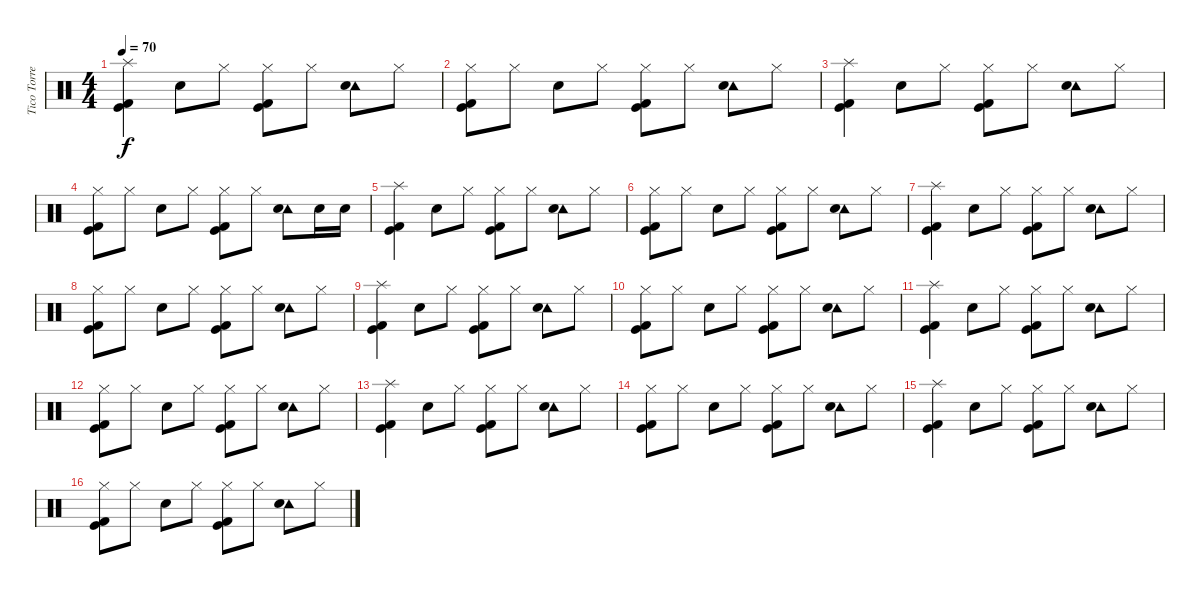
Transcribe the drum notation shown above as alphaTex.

\track ("Tico Torres" "Tico Torre") {instrument percussion}
\staff {score}
\articulation defaults
\ts (4 4)
\tempo 70
\clef neutral
\ks c
("Splash (hit)" "Kick (hit) 2" "Kick (hit)").4{dy f} "Snare (hit) 2".8 "Hi-Hat (closed)".8 ("Hi-Hat (closed)" "Kick (hit) 2" "Kick (hit)").8 "Hi-Hat (closed)".8 ("Tambourine (hit)" "Snare (hit) 2").8 "Hi-Hat (closed)".8 |
("Hi-Hat (closed)" "Kick (hit) 2" "Kick (hit)").8 "Hi-Hat (closed)".8 "Snare (hit) 2".8 "Hi-Hat (closed)".8 ("Hi-Hat (closed)" "Kick (hit) 2" "Kick (hit)").8 "Hi-Hat (closed)".8 ("Tambourine (hit)" "Snare (hit) 2").8 "Hi-Hat (closed)".8 |
("Splash (hit)" "Kick (hit) 2" "Kick (hit)").4 "Snare (hit) 2".8 "Hi-Hat (closed)".8 ("Hi-Hat (closed)" "Kick (hit) 2" "Kick (hit)").8 "Hi-Hat (closed)".8 ("Tambourine (hit)" "Snare (hit) 2").8 "Hi-Hat (closed)".8 |
("Hi-Hat (closed)" "Kick (hit) 2" "Kick (hit)").8 "Hi-Hat (closed)".8 "Snare (hit) 2".8 "Hi-Hat (closed)".8 ("Hi-Hat (closed)" "Kick (hit) 2" "Kick (hit)").8 "Hi-Hat (closed)".8 ("Tambourine (hit)" "Snare (hit) 2").8 "Snare (hit) 2".16 "Snare (hit) 2".16 |
("Splash (hit)" "Kick (hit) 2" "Kick (hit)").4 "Snare (hit) 2".8 "Hi-Hat (closed)".8 ("Hi-Hat (closed)" "Kick (hit) 2" "Kick (hit)").8 "Hi-Hat (closed)".8 ("Tambourine (hit)" "Snare (hit) 2").8 "Hi-Hat (closed)".8 |
("Hi-Hat (closed)" "Kick (hit) 2" "Kick (hit)").8 "Hi-Hat (closed)".8 "Snare (hit) 2".8 "Hi-Hat (closed)".8 ("Hi-Hat (closed)" "Kick (hit) 2" "Kick (hit)").8 "Hi-Hat (closed)".8 ("Tambourine (hit)" "Snare (hit) 2").8 "Hi-Hat (closed)".8 |
("Splash (hit)" "Kick (hit) 2" "Kick (hit)").4 "Snare (hit) 2".8 "Hi-Hat (closed)".8 ("Hi-Hat (closed)" "Kick (hit) 2" "Kick (hit)").8 "Hi-Hat (closed)".8 ("Tambourine (hit)" "Snare (hit) 2").8 "Hi-Hat (closed)".8 |
("Hi-Hat (closed)" "Kick (hit) 2" "Kick (hit)").8 "Hi-Hat (closed)".8 "Snare (hit) 2".8 "Hi-Hat (closed)".8 ("Hi-Hat (closed)" "Kick (hit) 2" "Kick (hit)").8 "Hi-Hat (closed)".8 ("Tambourine (hit)" "Snare (hit) 2").8 "Hi-Hat (closed)".8 |
("Splash (hit)" "Kick (hit) 2" "Kick (hit)").4 "Snare (hit) 2".8 "Hi-Hat (closed)".8 ("Hi-Hat (closed)" "Kick (hit) 2" "Kick (hit)").8 "Hi-Hat (closed)".8 ("Tambourine (hit)" "Snare (hit) 2").8 "Hi-Hat (closed)".8 |
("Hi-Hat (closed)" "Kick (hit) 2" "Kick (hit)").8 "Hi-Hat (closed)".8 "Snare (hit) 2".8 "Hi-Hat (closed)".8 ("Hi-Hat (closed)" "Kick (hit) 2" "Kick (hit)").8 "Hi-Hat (closed)".8 ("Tambourine (hit)" "Snare (hit) 2").8 "Hi-Hat (closed)".8 |
("Splash (hit)" "Kick (hit) 2" "Kick (hit)").4 "Snare (hit) 2".8 "Hi-Hat (closed)".8 ("Hi-Hat (closed)" "Kick (hit) 2" "Kick (hit)").8 "Hi-Hat (closed)".8 ("Tambourine (hit)" "Snare (hit) 2").8 "Hi-Hat (closed)".8 |
("Hi-Hat (closed)" "Kick (hit) 2" "Kick (hit)").8 "Hi-Hat (closed)".8 "Snare (hit) 2".8 "Hi-Hat (closed)".8 ("Hi-Hat (closed)" "Kick (hit) 2" "Kick (hit)").8 "Hi-Hat (closed)".8 ("Tambourine (hit)" "Snare (hit) 2").8 "Hi-Hat (closed)".8 |
("Splash (hit)" "Kick (hit) 2" "Kick (hit)").4 "Snare (hit) 2".8 "Hi-Hat (closed)".8 ("Hi-Hat (closed)" "Kick (hit) 2" "Kick (hit)").8 "Hi-Hat (closed)".8 ("Tambourine (hit)" "Snare (hit) 2").8 "Hi-Hat (closed)".8 |
("Hi-Hat (closed)" "Kick (hit) 2" "Kick (hit)").8 "Hi-Hat (closed)".8 "Snare (hit) 2".8 "Hi-Hat (closed)".8 ("Hi-Hat (closed)" "Kick (hit) 2" "Kick (hit)").8 "Hi-Hat (closed)".8 ("Tambourine (hit)" "Snare (hit) 2").8 "Hi-Hat (closed)".8 |
("Splash (hit)" "Kick (hit) 2" "Kick (hit)").4 "Snare (hit) 2".8 "Hi-Hat (closed)".8 ("Hi-Hat (closed)" "Kick (hit) 2" "Kick (hit)").8 "Hi-Hat (closed)".8 ("Tambourine (hit)" "Snare (hit) 2").8 "Hi-Hat (closed)".8 |
("Hi-Hat (closed)" "Kick (hit) 2" "Kick (hit)").8 "Hi-Hat (closed)".8 "Snare (hit) 2".8 "Hi-Hat (closed)".8 ("Hi-Hat (closed)" "Kick (hit) 2" "Kick (hit)").8 "Hi-Hat (closed)".8 ("Tambourine (hit)" "Snare (hit) 2").8 "Hi-Hat (closed)".8
